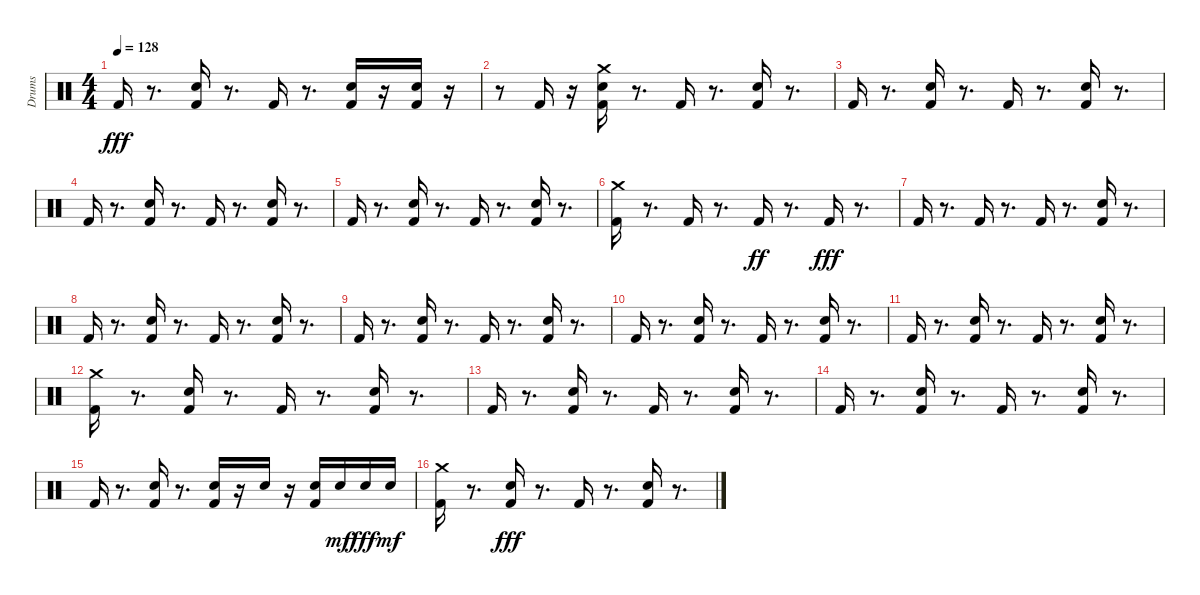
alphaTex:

\track ("Drums" "Drums") {instrument percussion}
\staff {score}
\articulation defaults
\ts (4 4)
\tempo 128
\clef neutral
\ks c "Kick (hit) 2".16{dy fff}
r.8{d} ("Kick (hit) 2" "Electric Snare (hit)").16 r.8{d} "Kick (hit) 2".16 r.8{d} ("Kick (hit) 2" "Electric Snare (hit)").16 r.16 ("Kick (hit) 2" "Electric Snare (hit)").16 r.16 |
r.8 "Kick (hit) 2".16 r.16 ("Crash medium (hit)" "Kick (hit) 2" "Electric Snare (hit)").16 r.8{d} "Kick (hit) 2".16 r.8{d} ("Kick (hit) 2" "Electric Snare (hit)").16 r.8{d} |
"Kick (hit) 2".16 r.8{d} ("Kick (hit) 2" "Electric Snare (hit)").16 r.8{d} "Kick (hit) 2".16 r.8{d} ("Kick (hit) 2" "Electric Snare (hit)").16 r.8{d} |
"Kick (hit) 2".16 r.8{d} ("Kick (hit) 2" "Electric Snare (hit)").16 r.8{d} "Kick (hit) 2".16 r.8{d} ("Kick (hit) 2" "Electric Snare (hit)").16 r.8{d} |
"Kick (hit) 2".16 r.8{d} ("Kick (hit) 2" "Electric Snare (hit)").16 r.8{d} "Kick (hit) 2".16 r.8{d} ("Kick (hit) 2" "Electric Snare (hit)").16 r.8{d} |
("Crash medium (hit)" "Kick (hit) 2").16 r.8{d} "Kick (hit) 2".16 r.8{d} "Kick (hit) 2".16{dy ff} r.8{d} "Kick (hit) 2".16{dy fff} r.8{d} |
"Kick (hit) 2".16 r.8{d} "Kick (hit) 2".16 r.8{d} "Kick (hit) 2".16 r.8{d} ("Kick (hit) 2" "Electric Snare (hit)").16 r.8{d} |
"Kick (hit) 2".16 r.8{d} ("Kick (hit) 2" "Electric Snare (hit)").16 r.8{d} "Kick (hit) 2".16 r.8{d} ("Kick (hit) 2" "Electric Snare (hit)").16 r.8{d} |
"Kick (hit) 2".16 r.8{d} ("Kick (hit) 2" "Electric Snare (hit)").16 r.8{d} "Kick (hit) 2".16 r.8{d} ("Kick (hit) 2" "Electric Snare (hit)").16 r.8{d} |
"Kick (hit) 2".16 r.8{d} ("Kick (hit) 2" "Electric Snare (hit)").16 r.8{d} "Kick (hit) 2".16 r.8{d} ("Kick (hit) 2" "Electric Snare (hit)").16 r.8{d} |
"Kick (hit) 2".16 r.8{d} ("Kick (hit) 2" "Electric Snare (hit)").16 r.8{d} "Kick (hit) 2".16 r.8{d} ("Kick (hit) 2" "Electric Snare (hit)").16 r.8{d} |
("Crash medium (hit)" "Kick (hit) 2").16 r.8{d} ("Kick (hit) 2" "Electric Snare (hit)").16 r.8{d} "Kick (hit) 2".16 r.8{d} ("Kick (hit) 2" "Electric Snare (hit)").16 r.8{d} |
"Kick (hit) 2".16 r.8{d} ("Kick (hit) 2" "Electric Snare (hit)").16 r.8{d} "Kick (hit) 2".16 r.8{d} ("Kick (hit) 2" "Electric Snare (hit)").16 r.8{d} |
"Kick (hit) 2".16 r.8{d} ("Kick (hit) 2" "Electric Snare (hit)").16 r.8{d} "Kick (hit) 2".16 r.8{d} ("Kick (hit) 2" "Electric Snare (hit)").16 r.8{d} |
"Kick (hit) 2".16 r.8{d} ("Kick (hit) 2" "Electric Snare (hit)").16 r.8{d} ("Kick (hit) 2" "Electric Snare (hit)").16 r.16 "Electric Snare (hit)".16 r.16 ("Kick (hit) 2" "Electric Snare (hit)").16 "Electric Snare (hit)".16{dy mf} "Electric Snare (hit)".16{dy fff} "Electric Snare (hit)".16{dy mf} |
("Kick (hit) 2" "Crash medium (hit)").16 r.8{d} ("Kick (hit) 2" "Electric Snare (hit)").16{dy fff} r.8{d} "Kick (hit) 2".16 r.8{d} ("Kick (hit) 2" "Electric Snare (hit)").16 r.8{d}
